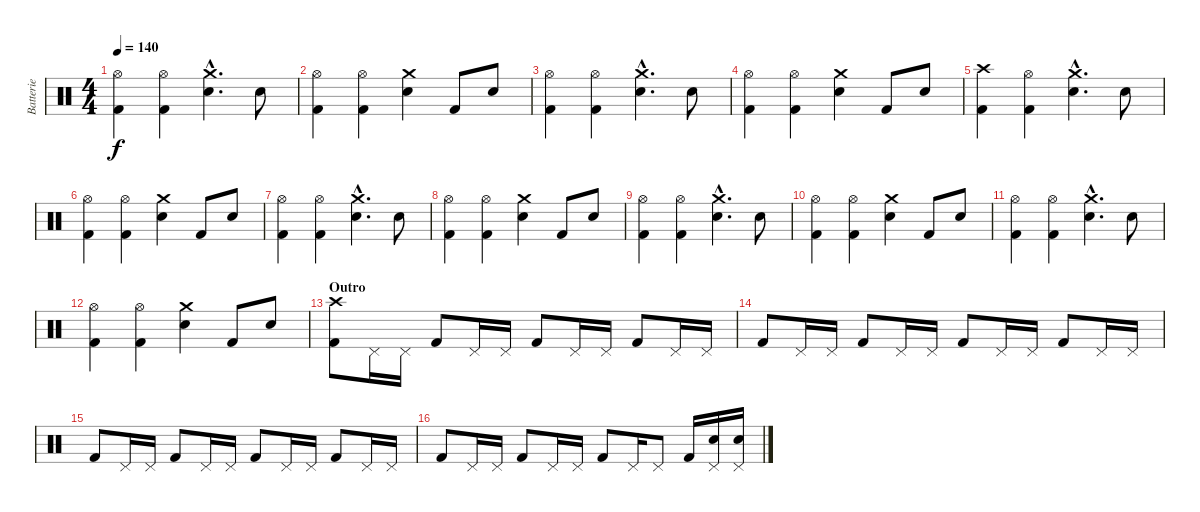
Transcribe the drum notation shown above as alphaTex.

\track ("Batterie" "Batterie") {instrument percussion}
\staff {score}
\articulation defaults
\ts (4 4)
\tempo 140
\clef neutral
\ks c
("Hi-Hat (open)" "Kick (hit) 2").4{dy f} ("Hi-Hat (open)" "Kick (hit) 2").4 ("Crash medium (hit)"{hac} "Snare (hit) 2"{hac}).4{d} "Snare (hit) 2".8 |
("Hi-Hat (open)" "Kick (hit) 2").4 ("Hi-Hat (open)" "Kick (hit) 2").4 ("Crash medium (hit)" "Snare (hit) 2").4 "Kick (hit) 2".8 "Snare (hit) 2".8 |
("Hi-Hat (open)" "Kick (hit) 2").4 ("Hi-Hat (open)" "Kick (hit) 2").4 ("Crash medium (hit)"{hac} "Snare (hit) 2"{hac}).4{d} "Snare (hit) 2".8 |
("Hi-Hat (open)" "Kick (hit) 2").4 ("Hi-Hat (open)" "Kick (hit) 2").4 ("Crash medium (hit)" "Snare (hit) 2").4 "Kick (hit) 2".8 "Snare (hit) 2".8 |
("Crash high (hit)" "Kick (hit) 2").4 ("Hi-Hat (open)" "Kick (hit) 2").4 ("Crash medium (hit)"{hac} "Snare (hit) 2"{hac}).4{d} "Snare (hit) 2".8 |
("Hi-Hat (open)" "Kick (hit) 2").4 ("Hi-Hat (open)" "Kick (hit) 2").4 ("Crash medium (hit)" "Snare (hit) 2").4 "Kick (hit) 2".8 "Snare (hit) 2".8 |
("Hi-Hat (open)" "Kick (hit) 2").4 ("Hi-Hat (open)" "Kick (hit) 2").4 ("Crash medium (hit)"{hac} "Snare (hit) 2"{hac}).4{d} "Snare (hit) 2".8 |
("Hi-Hat (open)" "Kick (hit) 2").4 ("Hi-Hat (open)" "Kick (hit) 2").4 ("Crash medium (hit)" "Snare (hit) 2").4 "Kick (hit) 2".8 "Snare (hit) 2".8 |
("Hi-Hat (open)" "Kick (hit) 2").4 ("Hi-Hat (open)" "Kick (hit) 2").4 ("Crash medium (hit)"{hac} "Snare (hit) 2"{hac}).4{d} "Snare (hit) 2".8 |
("Hi-Hat (open)" "Kick (hit) 2").4 ("Hi-Hat (open)" "Kick (hit) 2").4 ("Crash medium (hit)" "Snare (hit) 2").4 "Kick (hit) 2".8 "Snare (hit) 2".8 |
("Hi-Hat (open)" "Kick (hit) 2").4 ("Hi-Hat (open)" "Kick (hit) 2").4 ("Crash medium (hit)"{hac} "Snare (hit) 2"{hac}).4{d} "Snare (hit) 2".8 |
("Hi-Hat (open)" "Kick (hit) 2").4 ("Hi-Hat (open)" "Kick (hit) 2").4 ("Crash medium (hit)" "Snare (hit) 2").4 "Kick (hit) 2".8 "Snare (hit) 2".8 |
\section ("" "Outro")
("Crash high (hit)" "Kick (hit) 2").8 "Pedal Hi-Hat (hit)".16 "Pedal Hi-Hat (hit)".16 "Kick (hit) 2".8 "Pedal Hi-Hat (hit)".16 "Pedal Hi-Hat (hit)".16 "Kick (hit) 2".8 "Pedal Hi-Hat (hit)".16 "Pedal Hi-Hat (hit)".16 "Kick (hit) 2".8 "Pedal Hi-Hat (hit)".16 "Pedal Hi-Hat (hit)".16 |
"Kick (hit) 2".8 "Pedal Hi-Hat (hit)".16 "Pedal Hi-Hat (hit)".16 "Kick (hit) 2".8 "Pedal Hi-Hat (hit)".16 "Pedal Hi-Hat (hit)".16 "Kick (hit) 2".8 "Pedal Hi-Hat (hit)".16 "Pedal Hi-Hat (hit)".16 "Kick (hit) 2".8 "Pedal Hi-Hat (hit)".16 "Pedal Hi-Hat (hit)".16 |
"Kick (hit) 2".8 "Pedal Hi-Hat (hit)".16 "Pedal Hi-Hat (hit)".16 "Kick (hit) 2".8 "Pedal Hi-Hat (hit)".16 "Pedal Hi-Hat (hit)".16 "Kick (hit) 2".8 "Pedal Hi-Hat (hit)".16 "Pedal Hi-Hat (hit)".16 "Kick (hit) 2".8 "Pedal Hi-Hat (hit)".16 "Pedal Hi-Hat (hit)".16 |
"Kick (hit) 2".8 "Pedal Hi-Hat (hit)".16 "Pedal Hi-Hat (hit)".16 "Kick (hit) 2".8 "Pedal Hi-Hat (hit)".16 "Pedal Hi-Hat (hit)".16 "Kick (hit) 2".8 "Pedal Hi-Hat (hit)".16 "Pedal Hi-Hat (hit)".8 "Kick (hit) 2".16 ("Hand Clap (hit)" "Pedal Hi-Hat (hit)").16 ("Hand Clap (hit)" "Pedal Hi-Hat (hit)").16
